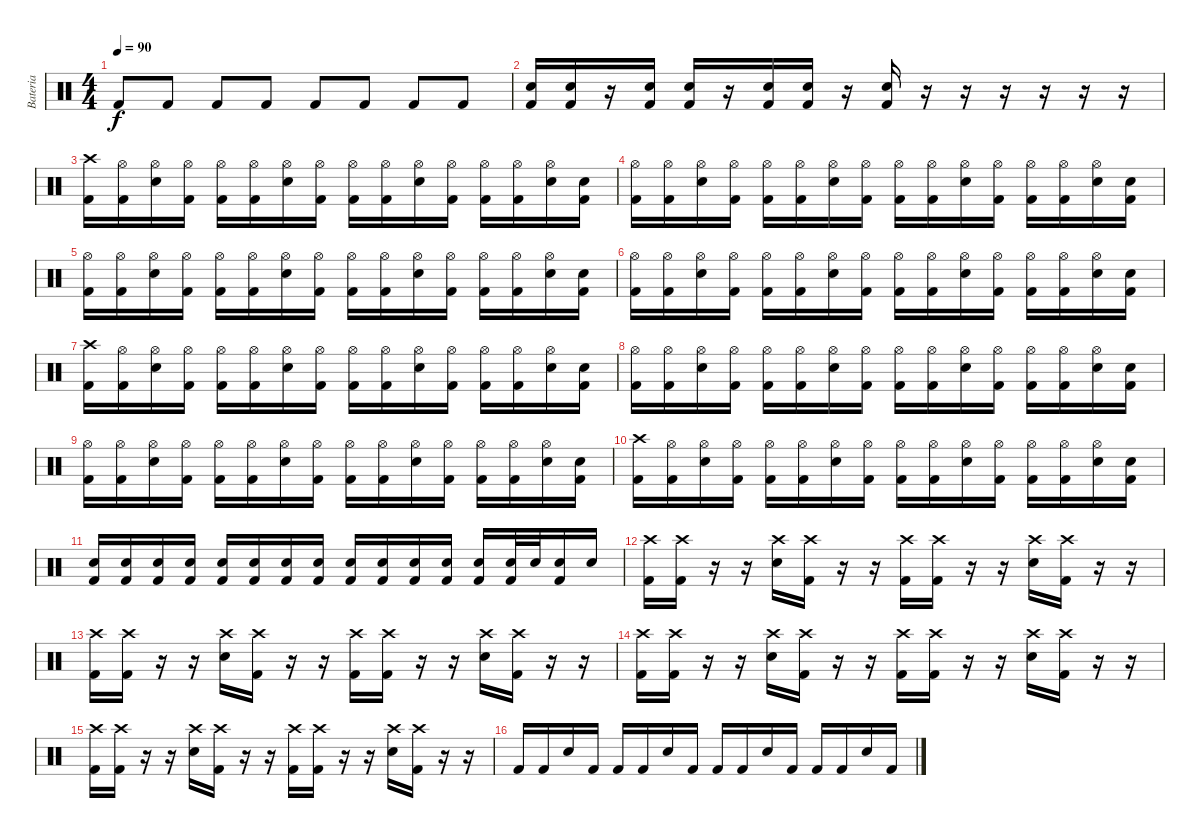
\track ("Bateria" "Bateria") {instrument percussion}
\staff {score}
\articulation defaults
\ts (4 4)
\tempo 90
\clef neutral
\ks c "Kick (hit) 2".8{dy f} "Kick (hit) 2".8 "Kick (hit) 2".8 "Kick (hit) 2".8 "Kick (hit) 2".8 "Kick (hit) 2".8 "Kick (hit) 2".8 "Kick (hit) 2".8
|
("Kick (hit) 2" "Electric Snare (hit)").16 ("Kick (hit) 2" "Electric Snare (hit)").16 r.16 ("Kick (hit) 2" "Electric Snare (hit)").16 ("Kick (hit) 2" "Electric Snare (hit)").16 r.16 ("Kick (hit) 2" "Electric Snare (hit)").16 ("Kick (hit) 2" "Electric Snare (hit)").16 r.16 ("Kick (hit) 2" "Electric Snare (hit)").16 r.16 r.16 r.16 r.16 r.16 r.16 |
("Kick (hit) 2" "Crash high (hit)").16 ("Kick (hit) 2" "Hi-Hat (open)").16 ("Electric Snare (hit)" "Hi-Hat (open)").16 ("Kick (hit) 2" "Hi-Hat (open)").16 ("Kick (hit) 2" "Hi-Hat (open)").16 ("Kick (hit) 2" "Hi-Hat (open)").16 ("Electric Snare (hit)" "Hi-Hat (open)").16 ("Kick (hit) 2" "Hi-Hat (open)").16 ("Kick (hit) 2" "Hi-Hat (open)").16 ("Kick (hit) 2" "Hi-Hat (open)").16 ("Electric Snare (hit)" "Hi-Hat (open)").16 ("Kick (hit) 2" "Hi-Hat (open)").16 ("Kick (hit) 2" "Hi-Hat (open)").16 ("Kick (hit) 2" "Hi-Hat (open)").16 ("Electric Snare (hit)" "Hi-Hat (open)").16 ("Kick (hit) 2" "Electric Snare (hit)").16 |
("Kick (hit) 2" "Hi-Hat (open)").16 ("Kick (hit) 2" "Hi-Hat (open)").16 ("Electric Snare (hit)" "Hi-Hat (open)").16 ("Kick (hit) 2" "Hi-Hat (open)").16 ("Kick (hit) 2" "Hi-Hat (open)").16 ("Kick (hit) 2" "Hi-Hat (open)").16 ("Electric Snare (hit)" "Hi-Hat (open)").16 ("Kick (hit) 2" "Hi-Hat (open)").16 ("Kick (hit) 2" "Hi-Hat (open)").16 ("Kick (hit) 2" "Hi-Hat (open)").16 ("Electric Snare (hit)" "Hi-Hat (open)").16 ("Kick (hit) 2" "Hi-Hat (open)").16 ("Kick (hit) 2" "Hi-Hat (open)").16 ("Kick (hit) 2" "Hi-Hat (open)").16 ("Electric Snare (hit)" "Hi-Hat (open)").16 ("Kick (hit) 2" "Electric Snare (hit)").16 |
("Kick (hit) 2" "Hi-Hat (open)").16 ("Kick (hit) 2" "Hi-Hat (open)").16 ("Electric Snare (hit)" "Hi-Hat (open)").16 ("Kick (hit) 2" "Hi-Hat (open)").16 ("Kick (hit) 2" "Hi-Hat (open)").16 ("Kick (hit) 2" "Hi-Hat (open)").16 ("Electric Snare (hit)" "Hi-Hat (open)").16 ("Kick (hit) 2" "Hi-Hat (open)").16 ("Kick (hit) 2" "Hi-Hat (open)").16 ("Kick (hit) 2" "Hi-Hat (open)").16 ("Electric Snare (hit)" "Hi-Hat (open)").16 ("Kick (hit) 2" "Hi-Hat (open)").16 ("Kick (hit) 2" "Hi-Hat (open)").16 ("Kick (hit) 2" "Hi-Hat (open)").16 ("Electric Snare (hit)" "Hi-Hat (open)").16 ("Kick (hit) 2" "Electric Snare (hit)").16 |
("Kick (hit) 2" "Hi-Hat (open)").16 ("Kick (hit) 2" "Hi-Hat (open)").16 ("Electric Snare (hit)" "Hi-Hat (open)").16 ("Kick (hit) 2" "Hi-Hat (open)").16 ("Kick (hit) 2" "Hi-Hat (open)").16 ("Kick (hit) 2" "Hi-Hat (open)").16 ("Electric Snare (hit)" "Hi-Hat (open)").16 ("Kick (hit) 2" "Hi-Hat (open)").16 ("Kick (hit) 2" "Hi-Hat (open)").16 ("Kick (hit) 2" "Hi-Hat (open)").16 ("Electric Snare (hit)" "Hi-Hat (open)").16 ("Kick (hit) 2" "Hi-Hat (open)").16 ("Kick (hit) 2" "Hi-Hat (open)").16 ("Kick (hit) 2" "Hi-Hat (open)").16 ("Electric Snare (hit)" "Hi-Hat (open)").16 ("Kick (hit) 2" "Electric Snare (hit)").16 |
("Kick (hit) 2" "Crash high (hit)").16 ("Kick (hit) 2" "Hi-Hat (open)").16 ("Electric Snare (hit)" "Hi-Hat (open)").16 ("Kick (hit) 2" "Hi-Hat (open)").16 ("Kick (hit) 2" "Hi-Hat (open)").16 ("Kick (hit) 2" "Hi-Hat (open)").16 ("Electric Snare (hit)" "Hi-Hat (open)").16 ("Kick (hit) 2" "Hi-Hat (open)").16 ("Kick (hit) 2" "Hi-Hat (open)").16 ("Kick (hit) 2" "Hi-Hat (open)").16 ("Electric Snare (hit)" "Hi-Hat (open)").16 ("Kick (hit) 2" "Hi-Hat (open)").16 ("Kick (hit) 2" "Hi-Hat (open)").16 ("Kick (hit) 2" "Hi-Hat (open)").16 ("Electric Snare (hit)" "Hi-Hat (open)").16 ("Kick (hit) 2" "Electric Snare (hit)").16 |
("Kick (hit) 2" "Hi-Hat (open)").16 ("Kick (hit) 2" "Hi-Hat (open)").16 ("Electric Snare (hit)" "Hi-Hat (open)").16 ("Kick (hit) 2" "Hi-Hat (open)").16 ("Kick (hit) 2" "Hi-Hat (open)").16 ("Kick (hit) 2" "Hi-Hat (open)").16 ("Electric Snare (hit)" "Hi-Hat (open)").16 ("Kick (hit) 2" "Hi-Hat (open)").16 ("Kick (hit) 2" "Hi-Hat (open)").16 ("Kick (hit) 2" "Hi-Hat (open)").16 ("Electric Snare (hit)" "Hi-Hat (open)").16 ("Kick (hit) 2" "Hi-Hat (open)").16 ("Kick (hit) 2" "Hi-Hat (open)").16 ("Kick (hit) 2" "Hi-Hat (open)").16 ("Electric Snare (hit)" "Hi-Hat (open)").16 ("Kick (hit) 2" "Electric Snare (hit)").16 |
("Kick (hit) 2" "Hi-Hat (open)").16 ("Kick (hit) 2" "Hi-Hat (open)").16 ("Electric Snare (hit)" "Hi-Hat (open)").16 ("Kick (hit) 2" "Hi-Hat (open)").16 ("Kick (hit) 2" "Hi-Hat (open)").16 ("Kick (hit) 2" "Hi-Hat (open)").16 ("Electric Snare (hit)" "Hi-Hat (open)").16 ("Kick (hit) 2" "Hi-Hat (open)").16 ("Kick (hit) 2" "Hi-Hat (open)").16 ("Kick (hit) 2" "Hi-Hat (open)").16 ("Electric Snare (hit)" "Hi-Hat (open)").16 ("Kick (hit) 2" "Hi-Hat (open)").16 ("Kick (hit) 2" "Hi-Hat (open)").16 ("Kick (hit) 2" "Hi-Hat (open)").16 ("Electric Snare (hit)" "Hi-Hat (open)").16 ("Kick (hit) 2" "Electric Snare (hit)").16 |
("Kick (hit) 2" "Crash high (hit)").16 ("Kick (hit) 2" "Hi-Hat (open)").16 ("Electric Snare (hit)" "Hi-Hat (open)").16 ("Kick (hit) 2" "Hi-Hat (open)").16 ("Kick (hit) 2" "Hi-Hat (open)").16 ("Kick (hit) 2" "Hi-Hat (open)").16 ("Electric Snare (hit)" "Hi-Hat (open)").16 ("Kick (hit) 2" "Hi-Hat (open)").16 ("Kick (hit) 2" "Hi-Hat (open)").16 ("Kick (hit) 2" "Hi-Hat (open)").16 ("Electric Snare (hit)" "Hi-Hat (open)").16 ("Kick (hit) 2" "Hi-Hat (open)").16 ("Kick (hit) 2" "Hi-Hat (open)").16 ("Kick (hit) 2" "Hi-Hat (open)").16 ("Electric Snare (hit)" "Hi-Hat (open)").16 ("Kick (hit) 2" "Electric Snare (hit)").16 |
("Kick (hit) 2" "Electric Snare (hit)").16 ("Kick (hit) 2" "Electric Snare (hit)").16 ("Kick (hit) 2" "Electric Snare (hit)").16 ("Kick (hit) 2" "Electric Snare (hit)").16 ("Kick (hit) 2" "Electric Snare (hit)").16 ("Kick (hit) 2" "Electric Snare (hit)").16 ("Kick (hit) 2" "Electric Snare (hit)").16 ("Kick (hit) 2" "Electric Snare (hit)").16 ("Kick (hit) 2" "Electric Snare (hit)").16 ("Kick (hit) 2" "Electric Snare (hit)").16 ("Kick (hit) 2" "Electric Snare (hit)").16 ("Kick (hit) 2" "Electric Snare (hit)").16 ("Kick (hit) 2" "Electric Snare (hit)").16 ("Kick (hit) 2" "Electric Snare (hit)").32 "Electric Snare (hit)".32 ("Kick (hit) 2" "Electric Snare (hit)").16 "Electric Snare (hit)".16 |
("Kick (hit) 2" "Crash high (hit)").16 ("Kick (hit) 2" "Crash high (hit)").16 r.16 r.16 ("Electric Snare (hit)" "Crash high (hit)").16 ("Kick (hit) 2" "Crash high (hit)").16 r.16 r.16 ("Kick (hit) 2" "Crash high (hit)").16 ("Kick (hit) 2" "Crash high (hit)").16 r.16 r.16 ("Electric Snare (hit)" "Crash high (hit)").16 ("Kick (hit) 2" "Crash high (hit)").16 r.16 r.16 |
("Kick (hit) 2" "Crash high (hit)").16 ("Kick (hit) 2" "Crash high (hit)").16 r.16 r.16 ("Electric Snare (hit)" "Crash high (hit)").16 ("Kick (hit) 2" "Crash high (hit)").16 r.16 r.16 ("Kick (hit) 2" "Crash high (hit)").16 ("Kick (hit) 2" "Crash high (hit)").16 r.16 r.16 ("Electric Snare (hit)" "Crash high (hit)").16 ("Kick (hit) 2" "Crash high (hit)").16 r.16 r.16 |
("Kick (hit) 2" "Crash high (hit)").16 ("Kick (hit) 2" "Crash high (hit)").16 r.16 r.16 ("Electric Snare (hit)" "Crash high (hit)").16 ("Kick (hit) 2" "Crash high (hit)").16 r.16 r.16 ("Kick (hit) 2" "Crash high (hit)").16 ("Kick (hit) 2" "Crash high (hit)").16 r.16 r.16 ("Electric Snare (hit)" "Crash high (hit)").16 ("Kick (hit) 2" "Crash high (hit)").16 r.16 r.16 |
("Kick (hit) 2" "Crash high (hit)").16 ("Kick (hit) 2" "Crash high (hit)").16 r.16 r.16 ("Electric Snare (hit)" "Crash high (hit)").16 ("Kick (hit) 2" "Crash high (hit)").16 r.16 r.16 ("Kick (hit) 2" "Crash high (hit)").16 ("Kick (hit) 2" "Crash high (hit)").16 r.16 r.16 ("Electric Snare (hit)" "Crash high (hit)").16 ("Kick (hit) 2" "Crash high (hit)").16 r.16 r.16 |
"Kick (hit) 2".16 "Kick (hit) 2".16 "Electric Snare (hit)".16 "Kick (hit) 2".16 "Kick (hit) 2".16 "Kick (hit) 2".16 "Electric Snare (hit)".16 "Kick (hit) 2".16 "Kick (hit) 2".16 "Kick (hit) 2".16 "Electric Snare (hit)".16 "Kick (hit) 2".16 "Kick (hit) 2".16 "Kick (hit) 2".16 "Electric Snare (hit)".16 "Kick (hit) 2".16
